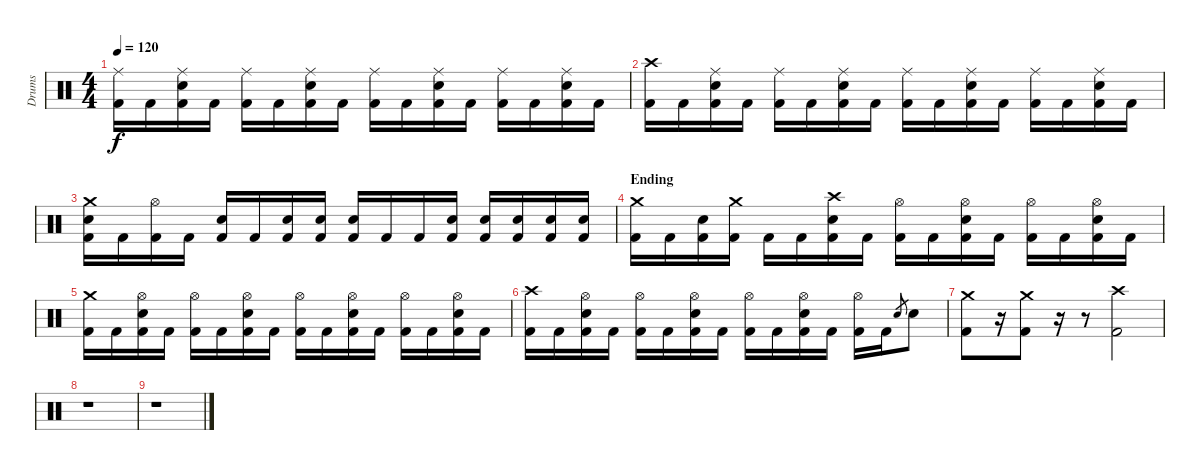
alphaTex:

\track ("Drums" "Drums") {instrument percussion}
\staff {score}
\articulation defaults
\ts (4 4)
\tempo 120
\clef neutral
\ks c
("Ride (middle)" "Kick (hit) 2").16{dy f} "Kick (hit) 2".16 ("Ride (middle)" "Snare (hit) 2" "Kick (hit) 2").16 "Kick (hit) 2".16 ("Ride (middle)" "Kick (hit) 2").16 "Kick (hit) 2".16 ("Ride (middle)" "Snare (hit) 2" "Kick (hit) 2").16 "Kick (hit) 2".16 ("Ride (middle)" "Kick (hit) 2").16 "Kick (hit) 2".16 ("Ride (middle)" "Snare (hit) 2" "Kick (hit) 2").16 "Kick (hit) 2".16 ("Ride (middle)" "Kick (hit) 2").16 "Kick (hit) 2".16 ("Ride (middle)" "Snare (hit) 2" "Kick (hit) 2").16 "Kick (hit) 2".16 |
("Crash high (hit)" "Kick (hit) 2").16 "Kick (hit) 2".16 ("Ride (middle)" "Snare (hit) 2" "Kick (hit) 2").16 "Kick (hit) 2".16 ("Ride (middle)" "Kick (hit) 2").16 "Kick (hit) 2".16 ("Ride (middle)" "Snare (hit) 2" "Kick (hit) 2").16 "Kick (hit) 2".16 ("Ride (middle)" "Kick (hit) 2").16 "Kick (hit) 2".16 ("Ride (middle)" "Snare (hit) 2" "Kick (hit) 2").16 "Kick (hit) 2".16 ("Ride (middle)" "Kick (hit) 2").16 "Kick (hit) 2".16 ("Ride (middle)" "Snare (hit) 2" "Kick (hit) 2").16 "Kick (hit) 2".16 |
("Crash medium (hit)" "Snare (hit) 2" "Kick (hit) 2").16 "Kick (hit) 2".16 ("Hi-Hat (open)" "Kick (hit) 2").16 "Kick (hit) 2".16 ("Snare (hit) 2" "Kick (hit) 2").16 "Kick (hit) 2".16 ("Snare (hit) 2" "Kick (hit) 2").16 ("Snare (hit) 2" "Kick (hit) 2").16 ("Snare (hit) 2" "Kick (hit) 2").16 "Kick (hit) 2".16 "Kick (hit) 2".16 ("Snare (hit) 2" "Kick (hit) 2").16 ("Snare (hit) 2" "Kick (hit) 2").16 ("Snare (hit) 2" "Kick (hit) 2").16 ("Snare (hit) 2" "Kick (hit) 2").16 ("Snare (hit) 2" "Kick (hit) 2").16 |
\section ("" "Ending")
("Crash medium (hit)" "Kick (hit) 2").16 "Kick (hit) 2".16 ("Snare (hit) 2" "Kick (hit) 2").16 ("Crash medium (hit)" "Kick (hit) 2").16 "Kick (hit) 2".16 "Kick (hit) 2".16 ("Crash high (hit)" "Snare (hit) 2" "Kick (hit) 2").16 "Kick (hit) 2".16 ("Hi-Hat (open)" "Kick (hit) 2").16 "Kick (hit) 2".16 ("Hi-Hat (open)" "Snare (hit) 2" "Kick (hit) 2").16 "Kick (hit) 2".16 ("Hi-Hat (open)" "Kick (hit) 2").16 "Kick (hit) 2".16 ("Hi-Hat (open)" "Snare (hit) 2" "Kick (hit) 2").16 "Kick (hit) 2".16 |
("Crash medium (hit)" "Kick (hit) 2").16 "Kick (hit) 2".16 ("Hi-Hat (open)" "Snare (hit) 2" "Kick (hit) 2").16 "Kick (hit) 2".16 ("Hi-Hat (open)" "Kick (hit) 2").16 "Kick (hit) 2".16 ("Hi-Hat (open)" "Snare (hit) 2" "Kick (hit) 2").16 "Kick (hit) 2".16 ("Hi-Hat (open)" "Kick (hit) 2").16 "Kick (hit) 2".16 ("Hi-Hat (open)" "Snare (hit) 2" "Kick (hit) 2").16 "Kick (hit) 2".16 ("Hi-Hat (open)" "Kick (hit) 2").16 "Kick (hit) 2".16 ("Hi-Hat (open)" "Snare (hit) 2" "Kick (hit) 2").16 "Kick (hit) 2".16 |
("Crash high (hit)" "Kick (hit) 2").16 "Kick (hit) 2".16 ("Hi-Hat (open)" "Snare (hit) 2" "Kick (hit) 2").16 "Kick (hit) 2".16 ("Hi-Hat (open)" "Kick (hit) 2").16 "Kick (hit) 2".16 ("Hi-Hat (open)" "Snare (hit) 2" "Kick (hit) 2").16 "Kick (hit) 2".16 ("Hi-Hat (open)" "Kick (hit) 2").16 "Kick (hit) 2".16 ("Hi-Hat (open)" "Snare (hit) 2" "Kick (hit) 2").16 "Kick (hit) 2".16 ("Hi-Hat (open)" "Kick (hit) 2").16 "Kick (hit) 2".16 "Snare (hit) 2".8{gr} "Snare (hit) 2".8 |
("Crash medium (hit)" "Kick (hit) 2").8 r.16 ("Crash medium (hit)" "Kick (hit) 2").8 r.16 r.8 ("Crash high (hit)" "Kick (hit) 2").2 |
r.1 |
r.1
